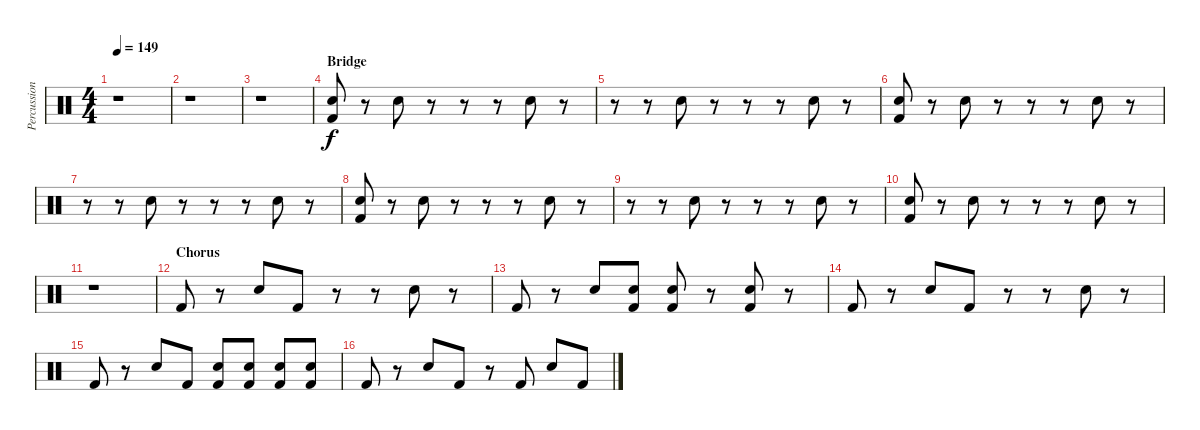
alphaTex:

\track ("Percussion" "Percussion") {instrument percussion}
\staff {score}
\articulation defaults
\ts (4 4)
\tempo 149
\clef neutral
\ks c
r.1{dy f} |
r.1 |
r.1 |
\section ("" "Bridge")
("Kick (hit) 2" "Hand Clap (hit)").8 r.8 "Hand Clap (hit)".8 r.8 r.8 r.8 "Hand Clap (hit)".8 r.8 |
r.8 r.8 "Hand Clap (hit)".8 r.8 r.8 r.8 "Hand Clap (hit)".8 r.8 |
("Kick (hit) 2" "Hand Clap (hit)").8 r.8 "Hand Clap (hit)".8 r.8 r.8 r.8 "Hand Clap (hit)".8 r.8 |
r.8 r.8 "Hand Clap (hit)".8 r.8 r.8 r.8 "Hand Clap (hit)".8 r.8 |
("Kick (hit) 2" "Hand Clap (hit)").8 r.8 "Hand Clap (hit)".8 r.8 r.8 r.8 "Hand Clap (hit)".8 r.8 |
r.8 r.8 "Hand Clap (hit)".8 r.8 r.8 r.8 "Hand Clap (hit)".8 r.8 |
("Kick (hit) 2" "Hand Clap (hit)").8 r.8 "Hand Clap (hit)".8 r.8 r.8 r.8 "Hand Clap (hit)".8 r.8 |
r.1 |
\section ("" "Chorus")
"Kick (hit) 2".8 r.8 "Hand Clap (hit)".8 "Kick (hit) 2".8 r.8 r.8 "Hand Clap (hit)".8 r.8 |
"Kick (hit) 2".8 r.8 "Hand Clap (hit)".8 ("Hand Clap (hit)" "Kick (hit) 2").8 ("Hand Clap (hit)" "Kick (hit) 2").8 r.8 ("Hand Clap (hit)" "Kick (hit) 2").8 r.8 |
"Kick (hit) 2".8 r.8 "Hand Clap (hit)".8 "Kick (hit) 2".8 r.8 r.8 "Hand Clap (hit)".8 r.8 |
"Kick (hit) 2".8 r.8 "Hand Clap (hit)".8 "Kick (hit) 2".8 ("Hand Clap (hit)" "Kick (hit) 2").8 ("Hand Clap (hit)" "Kick (hit) 2").8 ("Hand Clap (hit)" "Kick (hit) 2").8 ("Hand Clap (hit)" "Kick (hit) 2").8 |
"Kick (hit) 2".8 r.8 "Hand Clap (hit)".8 "Kick (hit) 2".8 r.8 "Kick (hit) 2".8 "Hand Clap (hit)".8 "Kick (hit) 2".8
